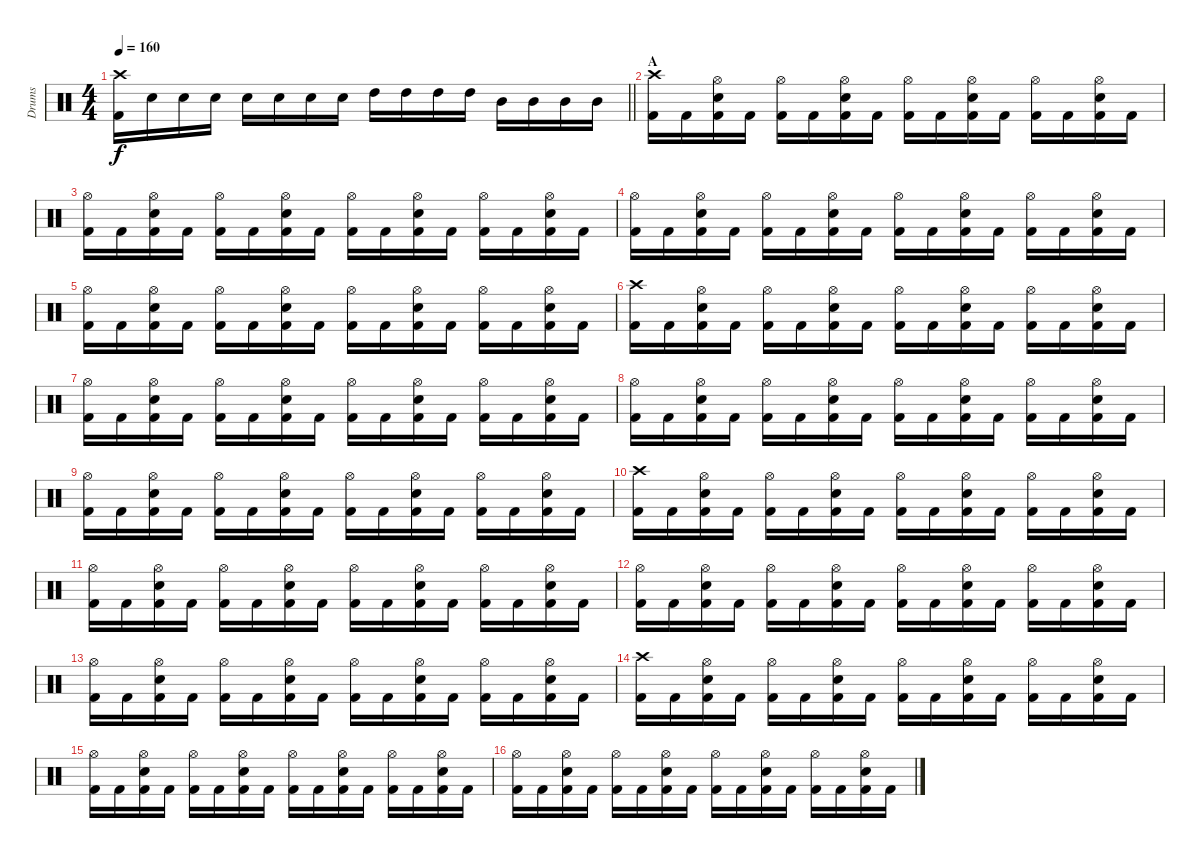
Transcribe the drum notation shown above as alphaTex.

\track ("Drums" "Drums") {instrument percussion}
\staff {score}
\articulation defaults
\ts (4 4)
\tempo 160
\clef neutral
\barLineRight lightlight
\ks c
("Crash high (hit)" "Kick (hit) 2").16{dy f} "Snare (hit) 2".16 "Snare (hit) 2".16 "Snare (hit) 2".16 "Snare (hit) 2".16 "Snare (hit) 2".16 "Snare (hit) 2".16 "Snare (hit) 2".16 "High Tom (hit)".16 "High Tom (hit)".16 "High Tom (hit)".16 "High Tom (hit)".16 "Mid Tom (hit)".16 "Mid Tom (hit)".16 "Mid Tom (hit)".16 "Mid Tom (hit)".16 |
\section ("" "A")
("Crash high (hit)" "Kick (hit) 2").16 "Kick (hit) 2".16 ("Hi-Hat (open)" "Snare (hit) 2" "Kick (hit) 2").16 "Kick (hit) 2".16 ("Hi-Hat (open)" "Kick (hit) 2").16 "Kick (hit) 2".16 ("Hi-Hat (open)" "Snare (hit) 2" "Kick (hit) 2").16 "Kick (hit) 2".16 ("Hi-Hat (open)" "Kick (hit) 2").16 "Kick (hit) 2".16 ("Hi-Hat (open)" "Snare (hit) 2" "Kick (hit) 2").16 "Kick (hit) 2".16 ("Hi-Hat (open)" "Kick (hit) 2").16 "Kick (hit) 2".16 ("Hi-Hat (open)" "Snare (hit) 2" "Kick (hit) 2").16 "Kick (hit) 2".16 |
("Hi-Hat (open)" "Kick (hit) 2").16 "Kick (hit) 2".16 ("Hi-Hat (open)" "Snare (hit) 2" "Kick (hit) 2").16 "Kick (hit) 2".16 ("Hi-Hat (open)" "Kick (hit) 2").16 "Kick (hit) 2".16 ("Hi-Hat (open)" "Snare (hit) 2" "Kick (hit) 2").16 "Kick (hit) 2".16 ("Hi-Hat (open)" "Kick (hit) 2").16 "Kick (hit) 2".16 ("Hi-Hat (open)" "Snare (hit) 2" "Kick (hit) 2").16 "Kick (hit) 2".16 ("Hi-Hat (open)" "Kick (hit) 2").16 "Kick (hit) 2".16 ("Hi-Hat (open)" "Snare (hit) 2" "Kick (hit) 2").16 "Kick (hit) 2".16 |
("Hi-Hat (open)" "Kick (hit) 2").16 "Kick (hit) 2".16 ("Hi-Hat (open)" "Snare (hit) 2" "Kick (hit) 2").16 "Kick (hit) 2".16 ("Hi-Hat (open)" "Kick (hit) 2").16 "Kick (hit) 2".16 ("Hi-Hat (open)" "Snare (hit) 2" "Kick (hit) 2").16 "Kick (hit) 2".16 ("Hi-Hat (open)" "Kick (hit) 2").16 "Kick (hit) 2".16 ("Hi-Hat (open)" "Snare (hit) 2" "Kick (hit) 2").16 "Kick (hit) 2".16 ("Hi-Hat (open)" "Kick (hit) 2").16 "Kick (hit) 2".16 ("Hi-Hat (open)" "Snare (hit) 2" "Kick (hit) 2").16 "Kick (hit) 2".16 |
("Hi-Hat (open)" "Kick (hit) 2").16 "Kick (hit) 2".16 ("Hi-Hat (open)" "Snare (hit) 2" "Kick (hit) 2").16 "Kick (hit) 2".16 ("Hi-Hat (open)" "Kick (hit) 2").16 "Kick (hit) 2".16 ("Hi-Hat (open)" "Snare (hit) 2" "Kick (hit) 2").16 "Kick (hit) 2".16 ("Hi-Hat (open)" "Kick (hit) 2").16 "Kick (hit) 2".16 ("Hi-Hat (open)" "Snare (hit) 2" "Kick (hit) 2").16 "Kick (hit) 2".16 ("Hi-Hat (open)" "Kick (hit) 2").16 "Kick (hit) 2".16 ("Hi-Hat (open)" "Snare (hit) 2" "Kick (hit) 2").16 "Kick (hit) 2".16 |
("Crash high (hit)" "Kick (hit) 2").16 "Kick (hit) 2".16 ("Hi-Hat (open)" "Snare (hit) 2" "Kick (hit) 2").16 "Kick (hit) 2".16 ("Hi-Hat (open)" "Kick (hit) 2").16 "Kick (hit) 2".16 ("Hi-Hat (open)" "Snare (hit) 2" "Kick (hit) 2").16 "Kick (hit) 2".16 ("Hi-Hat (open)" "Kick (hit) 2").16 "Kick (hit) 2".16 ("Hi-Hat (open)" "Snare (hit) 2" "Kick (hit) 2").16 "Kick (hit) 2".16 ("Hi-Hat (open)" "Kick (hit) 2").16 "Kick (hit) 2".16 ("Hi-Hat (open)" "Snare (hit) 2" "Kick (hit) 2").16 "Kick (hit) 2".16 |
("Hi-Hat (open)" "Kick (hit) 2").16 "Kick (hit) 2".16 ("Hi-Hat (open)" "Snare (hit) 2" "Kick (hit) 2").16 "Kick (hit) 2".16 ("Hi-Hat (open)" "Kick (hit) 2").16 "Kick (hit) 2".16 ("Hi-Hat (open)" "Snare (hit) 2" "Kick (hit) 2").16 "Kick (hit) 2".16 ("Hi-Hat (open)" "Kick (hit) 2").16 "Kick (hit) 2".16 ("Hi-Hat (open)" "Snare (hit) 2" "Kick (hit) 2").16 "Kick (hit) 2".16 ("Hi-Hat (open)" "Kick (hit) 2").16 "Kick (hit) 2".16 ("Hi-Hat (open)" "Snare (hit) 2" "Kick (hit) 2").16 "Kick (hit) 2".16 |
("Hi-Hat (open)" "Kick (hit) 2").16 "Kick (hit) 2".16 ("Hi-Hat (open)" "Snare (hit) 2" "Kick (hit) 2").16 "Kick (hit) 2".16 ("Hi-Hat (open)" "Kick (hit) 2").16 "Kick (hit) 2".16 ("Hi-Hat (open)" "Snare (hit) 2" "Kick (hit) 2").16 "Kick (hit) 2".16 ("Hi-Hat (open)" "Kick (hit) 2").16 "Kick (hit) 2".16 ("Hi-Hat (open)" "Snare (hit) 2" "Kick (hit) 2").16 "Kick (hit) 2".16 ("Hi-Hat (open)" "Kick (hit) 2").16 "Kick (hit) 2".16 ("Hi-Hat (open)" "Snare (hit) 2" "Kick (hit) 2").16 "Kick (hit) 2".16 |
("Hi-Hat (open)" "Kick (hit) 2").16 "Kick (hit) 2".16 ("Hi-Hat (open)" "Snare (hit) 2" "Kick (hit) 2").16 "Kick (hit) 2".16 ("Hi-Hat (open)" "Kick (hit) 2").16 "Kick (hit) 2".16 ("Hi-Hat (open)" "Snare (hit) 2" "Kick (hit) 2").16 "Kick (hit) 2".16 ("Hi-Hat (open)" "Kick (hit) 2").16 "Kick (hit) 2".16 ("Hi-Hat (open)" "Snare (hit) 2" "Kick (hit) 2").16 "Kick (hit) 2".16 ("Hi-Hat (open)" "Kick (hit) 2").16 "Kick (hit) 2".16 ("Hi-Hat (open)" "Snare (hit) 2" "Kick (hit) 2").16 "Kick (hit) 2".16 |
("Crash high (hit)" "Kick (hit) 2").16 "Kick (hit) 2".16 ("Hi-Hat (open)" "Snare (hit) 2" "Kick (hit) 2").16 "Kick (hit) 2".16 ("Hi-Hat (open)" "Kick (hit) 2").16 "Kick (hit) 2".16 ("Hi-Hat (open)" "Snare (hit) 2" "Kick (hit) 2").16 "Kick (hit) 2".16 ("Hi-Hat (open)" "Kick (hit) 2").16 "Kick (hit) 2".16 ("Hi-Hat (open)" "Snare (hit) 2" "Kick (hit) 2").16 "Kick (hit) 2".16 ("Hi-Hat (open)" "Kick (hit) 2").16 "Kick (hit) 2".16 ("Hi-Hat (open)" "Snare (hit) 2" "Kick (hit) 2").16 "Kick (hit) 2".16 |
("Hi-Hat (open)" "Kick (hit) 2").16 "Kick (hit) 2".16 ("Hi-Hat (open)" "Snare (hit) 2" "Kick (hit) 2").16 "Kick (hit) 2".16 ("Hi-Hat (open)" "Kick (hit) 2").16 "Kick (hit) 2".16 ("Hi-Hat (open)" "Snare (hit) 2" "Kick (hit) 2").16 "Kick (hit) 2".16 ("Hi-Hat (open)" "Kick (hit) 2").16 "Kick (hit) 2".16 ("Hi-Hat (open)" "Snare (hit) 2" "Kick (hit) 2").16 "Kick (hit) 2".16 ("Hi-Hat (open)" "Kick (hit) 2").16 "Kick (hit) 2".16 ("Hi-Hat (open)" "Snare (hit) 2" "Kick (hit) 2").16 "Kick (hit) 2".16 |
("Hi-Hat (open)" "Kick (hit) 2").16 "Kick (hit) 2".16 ("Hi-Hat (open)" "Snare (hit) 2" "Kick (hit) 2").16 "Kick (hit) 2".16 ("Hi-Hat (open)" "Kick (hit) 2").16 "Kick (hit) 2".16 ("Hi-Hat (open)" "Snare (hit) 2" "Kick (hit) 2").16 "Kick (hit) 2".16 ("Hi-Hat (open)" "Kick (hit) 2").16 "Kick (hit) 2".16 ("Hi-Hat (open)" "Snare (hit) 2" "Kick (hit) 2").16 "Kick (hit) 2".16 ("Hi-Hat (open)" "Kick (hit) 2").16 "Kick (hit) 2".16 ("Hi-Hat (open)" "Snare (hit) 2" "Kick (hit) 2").16 "Kick (hit) 2".16 |
("Hi-Hat (open)" "Kick (hit) 2").16 "Kick (hit) 2".16 ("Hi-Hat (open)" "Snare (hit) 2" "Kick (hit) 2").16 "Kick (hit) 2".16 ("Hi-Hat (open)" "Kick (hit) 2").16 "Kick (hit) 2".16 ("Hi-Hat (open)" "Snare (hit) 2" "Kick (hit) 2").16 "Kick (hit) 2".16 ("Hi-Hat (open)" "Kick (hit) 2").16 "Kick (hit) 2".16 ("Hi-Hat (open)" "Snare (hit) 2" "Kick (hit) 2").16 "Kick (hit) 2".16 ("Hi-Hat (open)" "Kick (hit) 2").16 "Kick (hit) 2".16 ("Hi-Hat (open)" "Snare (hit) 2" "Kick (hit) 2").16 "Kick (hit) 2".16 |
("Crash high (hit)" "Kick (hit) 2").16 "Kick (hit) 2".16 ("Hi-Hat (open)" "Snare (hit) 2" "Kick (hit) 2").16 "Kick (hit) 2".16 ("Hi-Hat (open)" "Kick (hit) 2").16 "Kick (hit) 2".16 ("Hi-Hat (open)" "Snare (hit) 2" "Kick (hit) 2").16 "Kick (hit) 2".16 ("Hi-Hat (open)" "Kick (hit) 2").16 "Kick (hit) 2".16 ("Hi-Hat (open)" "Snare (hit) 2" "Kick (hit) 2").16 "Kick (hit) 2".16 ("Hi-Hat (open)" "Kick (hit) 2").16 "Kick (hit) 2".16 ("Hi-Hat (open)" "Snare (hit) 2" "Kick (hit) 2").16 "Kick (hit) 2".16 |
("Hi-Hat (open)" "Kick (hit) 2").16 "Kick (hit) 2".16 ("Hi-Hat (open)" "Snare (hit) 2" "Kick (hit) 2").16 "Kick (hit) 2".16 ("Hi-Hat (open)" "Kick (hit) 2").16 "Kick (hit) 2".16 ("Hi-Hat (open)" "Snare (hit) 2" "Kick (hit) 2").16 "Kick (hit) 2".16 ("Hi-Hat (open)" "Kick (hit) 2").16 "Kick (hit) 2".16 ("Hi-Hat (open)" "Snare (hit) 2" "Kick (hit) 2").16 "Kick (hit) 2".16 ("Hi-Hat (open)" "Kick (hit) 2").16 "Kick (hit) 2".16 ("Hi-Hat (open)" "Snare (hit) 2" "Kick (hit) 2").16 "Kick (hit) 2".16 |
("Hi-Hat (open)" "Kick (hit) 2").16 "Kick (hit) 2".16 ("Hi-Hat (open)" "Snare (hit) 2" "Kick (hit) 2").16 "Kick (hit) 2".16 ("Hi-Hat (open)" "Kick (hit) 2").16 "Kick (hit) 2".16 ("Hi-Hat (open)" "Snare (hit) 2" "Kick (hit) 2").16 "Kick (hit) 2".16 ("Hi-Hat (open)" "Kick (hit) 2").16 "Kick (hit) 2".16 ("Hi-Hat (open)" "Snare (hit) 2" "Kick (hit) 2").16 "Kick (hit) 2".16 ("Hi-Hat (open)" "Kick (hit) 2").16 "Kick (hit) 2".16 ("Hi-Hat (open)" "Snare (hit) 2" "Kick (hit) 2").16 "Kick (hit) 2".16
